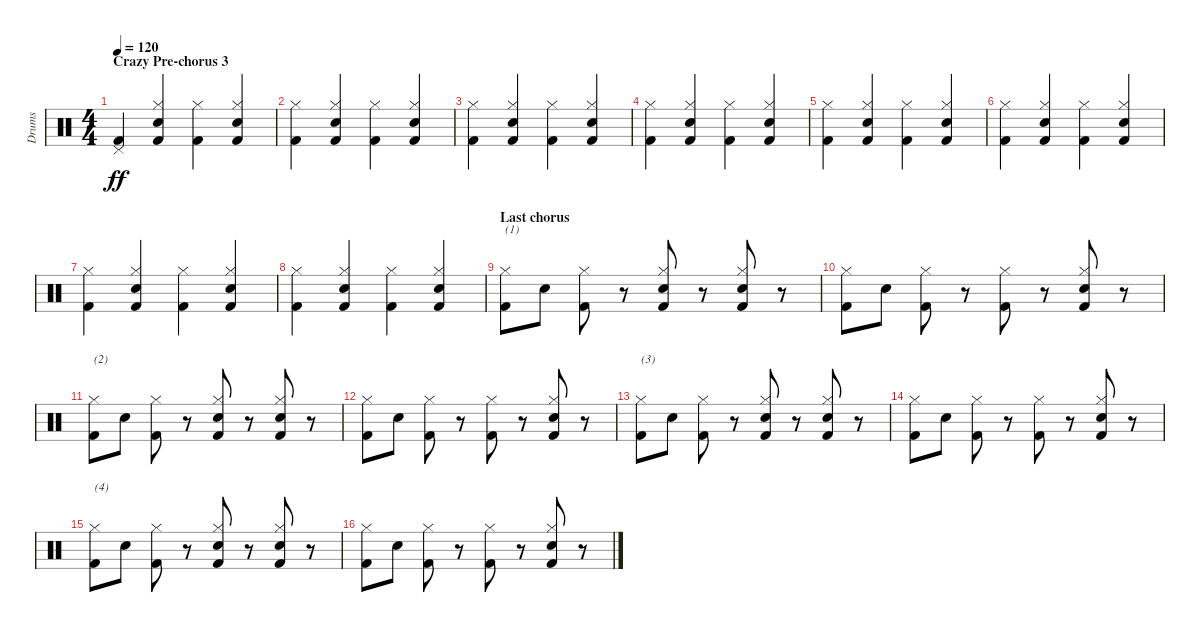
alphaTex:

\track ("Drums" "Drums") {instrument percussion}
\staff {score}
\articulation defaults
\ts (4 4)
\section ("" "Crazy Pre-chorus 3")
\tempo 120
\clef neutral
\ks c
("Pedal Hi-Hat (hit)" "Kick (hit) 2").4{dy ff} ("Hi-Hat (closed)" "Snare (hit) 2" "Kick (hit) 2").4 ("Hi-Hat (closed)" "Kick (hit) 2").4 ("Hi-Hat (closed)" "Snare (hit) 2" "Kick (hit) 2").4 |
("Hi-Hat (closed)" "Kick (hit) 2").4 ("Hi-Hat (closed)" "Snare (hit) 2" "Kick (hit) 2").4 ("Hi-Hat (closed)" "Kick (hit) 2").4 ("Hi-Hat (closed)" "Snare (hit) 2" "Kick (hit) 2").4 |
("Hi-Hat (closed)" "Kick (hit) 2").4 ("Hi-Hat (closed)" "Snare (hit) 2" "Kick (hit) 2").4 ("Hi-Hat (closed)" "Kick (hit) 2").4 ("Hi-Hat (closed)" "Snare (hit) 2" "Kick (hit) 2").4 |
("Hi-Hat (closed)" "Kick (hit) 2").4 ("Hi-Hat (closed)" "Snare (hit) 2" "Kick (hit) 2").4 ("Hi-Hat (closed)" "Kick (hit) 2").4 ("Hi-Hat (closed)" "Snare (hit) 2" "Kick (hit) 2").4 |
("Hi-Hat (closed)" "Kick (hit) 2").4 ("Hi-Hat (closed)" "Snare (hit) 2" "Kick (hit) 2").4 ("Hi-Hat (closed)" "Kick (hit) 2").4 ("Hi-Hat (closed)" "Snare (hit) 2" "Kick (hit) 2").4 |
("Hi-Hat (closed)" "Kick (hit) 2").4 ("Hi-Hat (closed)" "Snare (hit) 2" "Kick (hit) 2").4 ("Hi-Hat (closed)" "Kick (hit) 2").4 ("Hi-Hat (closed)" "Snare (hit) 2" "Kick (hit) 2").4 |
("Hi-Hat (closed)" "Kick (hit) 2").4 ("Hi-Hat (closed)" "Snare (hit) 2" "Kick (hit) 2").4 ("Hi-Hat (closed)" "Kick (hit) 2").4 ("Hi-Hat (closed)" "Snare (hit) 2" "Kick (hit) 2").4 |
("Hi-Hat (closed)" "Kick (hit) 2").4 ("Hi-Hat (closed)" "Snare (hit) 2" "Kick (hit) 2").4 ("Hi-Hat (closed)" "Kick (hit) 2").4 ("Hi-Hat (closed)" "Snare (hit) 2" "Kick (hit) 2").4 |
\section ("" "Last chorus")
("Hi-Hat (closed)" "Kick (hit) 2").8{txt "(1)"} "Snare (hit) 2".8 ("Hi-Hat (closed)" "Kick (hit) 2").8 r.8 ("Hi-Hat (closed)" "Snare (hit) 2" "Kick (hit) 2").8 r.8 ("Hi-Hat (closed)" "Snare (hit) 2" "Kick (hit) 2").8 r.8 |
("Hi-Hat (closed)" "Kick (hit) 2").8 "Snare (hit) 2".8 ("Hi-Hat (closed)" "Kick (hit) 2").8 r.8 ("Hi-Hat (closed)" "Kick (hit) 2").8 r.8 ("Hi-Hat (closed)" "Snare (hit) 2" "Kick (hit) 2").8 r.8 |
("Hi-Hat (closed)" "Kick (hit) 2").8{txt "(2)"} "Snare (hit) 2".8 ("Hi-Hat (closed)" "Kick (hit) 2").8 r.8 ("Hi-Hat (closed)" "Snare (hit) 2" "Kick (hit) 2").8 r.8 ("Hi-Hat (closed)" "Snare (hit) 2" "Kick (hit) 2").8 r.8 |
("Hi-Hat (closed)" "Kick (hit) 2").8 "Snare (hit) 2".8 ("Hi-Hat (closed)" "Kick (hit) 2").8 r.8 ("Hi-Hat (closed)" "Kick (hit) 2").8 r.8 ("Hi-Hat (closed)" "Snare (hit) 2" "Kick (hit) 2").8 r.8 |
("Hi-Hat (closed)" "Kick (hit) 2").8{txt "(3)"} "Snare (hit) 2".8 ("Hi-Hat (closed)" "Kick (hit) 2").8 r.8 ("Hi-Hat (closed)" "Snare (hit) 2" "Kick (hit) 2").8 r.8 ("Hi-Hat (closed)" "Snare (hit) 2" "Kick (hit) 2").8 r.8 |
("Hi-Hat (closed)" "Kick (hit) 2").8 "Snare (hit) 2".8 ("Hi-Hat (closed)" "Kick (hit) 2").8 r.8 ("Hi-Hat (closed)" "Kick (hit) 2").8 r.8 ("Hi-Hat (closed)" "Snare (hit) 2" "Kick (hit) 2").8 r.8 |
("Hi-Hat (closed)" "Kick (hit) 2").8{txt "(4)"} "Snare (hit) 2".8 ("Hi-Hat (closed)" "Kick (hit) 2").8 r.8 ("Hi-Hat (closed)" "Snare (hit) 2" "Kick (hit) 2").8 r.8 ("Hi-Hat (closed)" "Snare (hit) 2" "Kick (hit) 2").8 r.8 |
("Hi-Hat (closed)" "Kick (hit) 2").8 "Snare (hit) 2".8 ("Hi-Hat (closed)" "Kick (hit) 2").8 r.8 ("Hi-Hat (closed)" "Kick (hit) 2").8 r.8 ("Hi-Hat (closed)" "Snare (hit) 2" "Kick (hit) 2").8 r.8
